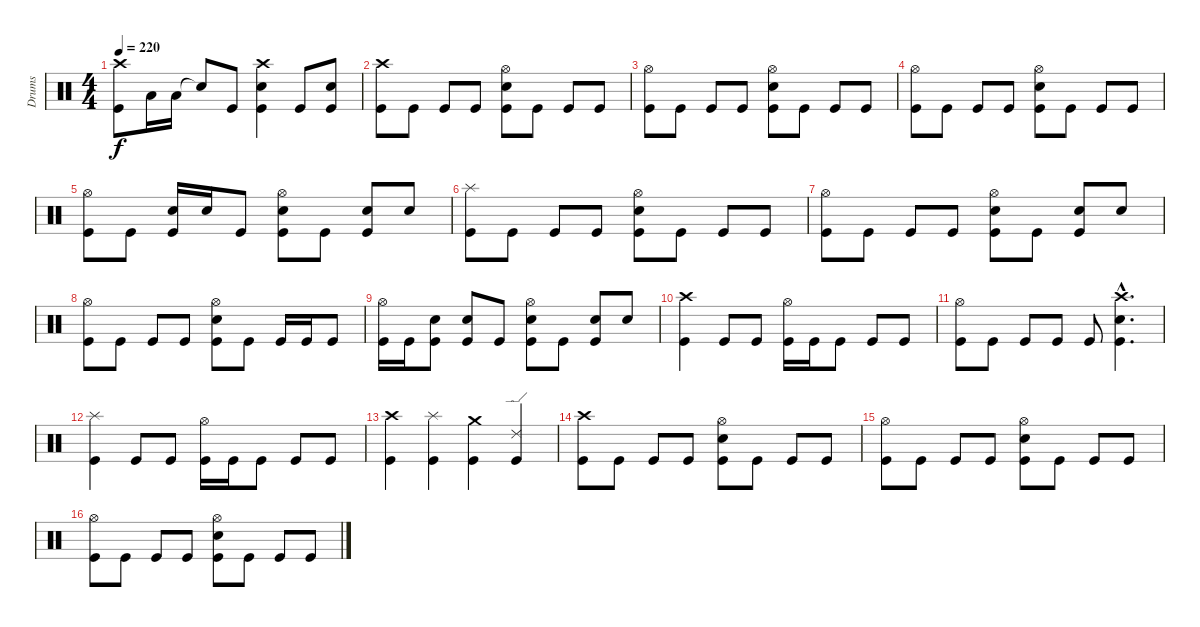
\track ("Drums" "Drums") {instrument percussion}
\staff {score}
\articulation defaults
\ts (4 4)
\tempo 220
\clef neutral
\ks c
("Crash high (hit)" "Kick (hit)").8{dy f} "Low Floor Tom (hit)".16 "Low Floor Tom (hit)".16 "Snare (hit)"{t}.8 "Kick (hit)".8 ("Crash high (hit)" "Snare (hit) 2" "Kick (hit)").4 "Kick (hit)".8 ("Electric Snare (hit)" "Kick (hit)").8 |
("Crash high (hit)" "Kick (hit)").8 "Kick (hit)".8 "Kick (hit)".8 "Kick (hit)".8 ("Hi-Hat (open)" "Electric Snare (hit)" "Kick (hit)").8 "Kick (hit)".8 "Kick (hit)".8 "Kick (hit)".8 |
("Hi-Hat (open)" "Kick (hit)").8 "Kick (hit)".8 "Kick (hit)".8 "Kick (hit)".8 ("Hi-Hat (open)" "Electric Snare (hit)" "Kick (hit)").8 "Kick (hit)".8 "Kick (hit)".8 "Kick (hit)".8 |
("Hi-Hat (open)" "Kick (hit)").8 "Kick (hit)".8 "Kick (hit)".8 "Kick (hit)".8 ("Hi-Hat (open)" "Electric Snare (hit)" "Kick (hit)").8 "Kick (hit)".8 "Kick (hit)".8 "Kick (hit)".8 |
("Hi-Hat (open)" "Kick (hit)").8 "Kick (hit)".8 ("Snare (hit) 2" "Kick (hit)").16 "Snare (hit) 2".16 "Kick (hit)".8 ("Hi-Hat (open)" "Electric Snare (hit)" "Kick (hit)").8 "Kick (hit)".8 ("Snare (hit) 2" "Kick (hit)").8 "Snare (hit) 2".8 |
("Splash (hit)" "Kick (hit)").8 "Kick (hit)".8 "Kick (hit)".8 "Kick (hit)".8 ("Hi-Hat (open)" "Electric Snare (hit)" "Kick (hit)").8 "Kick (hit)".8 "Kick (hit)".8 "Kick (hit)".8 |
("Hi-Hat (open)" "Kick (hit)").8 "Kick (hit)".8 "Kick (hit)".8 "Kick (hit)".8 ("Hi-Hat (open)" "Electric Snare (hit)" "Kick (hit)").8 "Kick (hit)".8 ("Snare (hit) 2" "Kick (hit)").8 "Snare (hit) 2".8 |
("Hi-Hat (open)" "Kick (hit)").8 "Kick (hit)".8 "Kick (hit)".8 "Kick (hit)".8 ("Hi-Hat (open)" "Electric Snare (hit)" "Kick (hit)").8 "Kick (hit)".8 "Kick (hit)".16 "Kick (hit)".16 "Kick (hit)".8 |
("Hi-Hat (open)" "Kick (hit)").16 "Kick (hit)".16 ("Electric Snare (hit)" "Kick (hit)").8 ("Electric Snare (hit)" "Kick (hit)").8 "Kick (hit)".8 ("Hi-Hat (open)" "Electric Snare (hit)" "Kick (hit)").8 "Kick (hit)".8 ("Electric Snare (hit)" "Kick (hit)").8 "Snare (hit) 2".8 |
("Crash high (hit)" "Kick (hit)").4 "Kick (hit)".8 "Kick (hit)".8 ("Hi-Hat (open)" "Kick (hit)").16 "Kick (hit)".16 "Kick (hit)".8 "Kick (hit)".8 "Kick (hit)".8 |
("Hi-Hat (open)" "Kick (hit)").8 "Kick (hit)".8 "Kick (hit)".8 "Kick (hit)".8 "Kick (hit)".8 ("Crash high (hit)"{hac} "Electric Snare (hit)"{hac} "Kick (hit)"{hac}).4{d} |
("Splash (hit)" "Kick (hit)").4 "Kick (hit)".8 "Kick (hit)".8 ("Hi-Hat (open)" "Kick (hit)").16 "Kick (hit)".16 "Kick (hit)".8 "Kick (hit)".8 "Kick (hit)".8 |
("Crash high (hit)" "Kick (hit)").4 ("Splash (hit)" "Kick (hit)").4 ("Crash medium (hit)" "Kick (hit)").4 ("Ride (edge) 2" "Kick (hit)").4 |
("Crash high (hit)" "Kick (hit)").8 "Kick (hit)".8 "Kick (hit)".8 "Kick (hit)".8 ("Hi-Hat (open)" "Electric Snare (hit)" "Kick (hit)").8 "Kick (hit)".8 "Kick (hit)".8 "Kick (hit)".8 |
("Hi-Hat (open)" "Kick (hit)").8 "Kick (hit)".8 "Kick (hit)".8 "Kick (hit)".8 ("Hi-Hat (open)" "Electric Snare (hit)" "Kick (hit)").8 "Kick (hit)".8 "Kick (hit)".8 "Kick (hit)".8 |
("Hi-Hat (open)" "Kick (hit)").8 "Kick (hit)".8 "Kick (hit)".8 "Kick (hit)".8 ("Hi-Hat (open)" "Electric Snare (hit)" "Kick (hit)").8 "Kick (hit)".8 "Kick (hit)".8 "Kick (hit)".8
